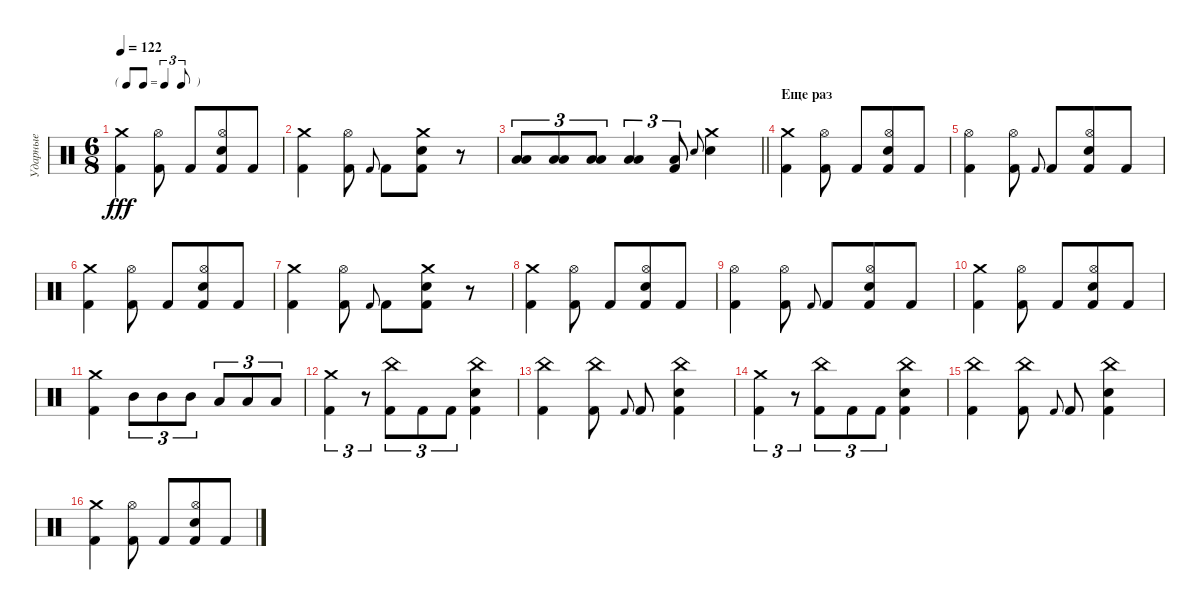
\track ("Ударные" "Ударные") {instrument percussion}
\staff {score}
\articulation defaults
\ts (6 8)
\tf triplet8th
\tempo 122
\clef neutral
\ks c
("Crash medium (hit)" "Kick (hit) 2").4{dy fff} ("Hi-Hat (open)" "Kick (hit) 2").8 "Kick (hit) 2".8 ("Hi-Hat (open)" "Snare (hit) 2" "Kick (hit) 2").8 "Kick (hit) 2".8 |
("Crash medium (hit)" "Kick (hit) 2").4 ("Hi-Hat (open)" "Kick (hit) 2").8 "Kick (hit) 2".8{gr onbeat} "Kick (hit) 2".8 ("Crash medium (hit)" "Snare (hit) 2" "Kick (hit) 2").8 r.8 |
\barLineRight lightlight
("Low Floor Tom (hit)" "Low Tom (hit)").8{tu (3 2)} ("Low Floor Tom (hit)" "Low Tom (hit)").8{tu (3 2)} ("Low Floor Tom (hit)" "Low Tom (hit)").8{tu (3 2)} ("Low Floor Tom (hit)" "Low Tom (hit)").4{tu (3 2)} ("Low Floor Tom (hit)" "Kick (hit) 2").8{tu (3 2)} "Snare (hit) 2".8{gr onbeat} ("Snare (hit) 2" "Crash medium (hit)").4 |
\section ("" "Еще раз")
("Crash medium (hit)" "Kick (hit) 2").4 ("Hi-Hat (open)" "Kick (hit) 2").8 "Kick (hit) 2".8 ("Hi-Hat (open)" "Snare (hit) 2" "Kick (hit) 2").8 "Kick (hit) 2".8 |
("Hi-Hat (open)" "Kick (hit) 2").4 ("Hi-Hat (open)" "Kick (hit) 2").8 "Kick (hit) 2".8{gr onbeat} "Kick (hit) 2".8 ("Hi-Hat (open)" "Snare (hit) 2" "Kick (hit) 2").8 "Kick (hit) 2".8 |
("Crash medium (hit)" "Kick (hit) 2").4 ("Hi-Hat (open)" "Kick (hit) 2").8 "Kick (hit) 2".8 ("Hi-Hat (open)" "Snare (hit) 2" "Kick (hit) 2").8 "Kick (hit) 2".8 |
("Crash medium (hit)" "Kick (hit) 2").4 ("Hi-Hat (open)" "Kick (hit) 2").8 "Kick (hit) 2".8{gr onbeat} "Kick (hit) 2".8 ("Crash medium (hit)" "Snare (hit) 2" "Kick (hit) 2").8 r.8 |
("Crash medium (hit)" "Kick (hit) 2").4 ("Hi-Hat (open)" "Kick (hit) 2").8 "Kick (hit) 2".8 ("Hi-Hat (open)" "Snare (hit) 2" "Kick (hit) 2").8 "Kick (hit) 2".8 |
("Hi-Hat (open)" "Kick (hit) 2").4 ("Hi-Hat (open)" "Kick (hit) 2").8 "Kick (hit) 2".8{gr onbeat} "Kick (hit) 2".8 ("Hi-Hat (open)" "Snare (hit) 2" "Kick (hit) 2").8 "Kick (hit) 2".8 |
("Crash medium (hit)" "Kick (hit) 2").4 ("Hi-Hat (open)" "Kick (hit) 2").8 "Kick (hit) 2".8 ("Hi-Hat (open)" "Snare (hit) 2" "Kick (hit) 2").8 "Kick (hit) 2".8 |
("Crash medium (hit)" "Kick (hit) 2").4 "Mid Tom (hit)".8{tu (3 2)} "Mid Tom (hit)".8{tu (3 2)} "Mid Tom (hit)".8{tu (3 2)} "Low Tom (hit)".8{tu (3 2)} "Low Tom (hit)".8{tu (3 2)} "Low Tom (hit)".8{tu (3 2)} |
("Kick (hit) 2" "Crash medium (hit)").4{tu (3 2)} r.8{tu (3 2)} ("Kick (hit) 2" "China (hit)").8{tu (3 2)} "Kick (hit) 2".8{tu (3 2)} "Kick (hit) 2".8{tu (3 2)} ("Snare (hit) 2" "Kick (hit) 2" "China (hit)").4 |
("China (hit)" "Kick (hit) 2").4 ("China (hit)" "Kick (hit) 2").8 "Kick (hit) 2".8{gr onbeat} "Kick (hit) 2".8 ("China (hit)" "Snare (hit) 2" "Kick (hit) 2").4 |
("Kick (hit) 2" "Crash medium (hit)").4{tu (3 2)} r.8{tu (3 2)} ("Kick (hit) 2" "China (hit)").8{tu (3 2)} "Kick (hit) 2".8{tu (3 2)} "Kick (hit) 2".8{tu (3 2)} ("Snare (hit) 2" "Kick (hit) 2" "China (hit)").4 |
("China (hit)" "Kick (hit) 2").4 ("China (hit)" "Kick (hit) 2").8 "Kick (hit) 2".8{gr onbeat} "Kick (hit) 2".8 ("China (hit)" "Snare (hit) 2" "Kick (hit) 2").4 |
("Crash medium (hit)" "Kick (hit) 2").4 ("Hi-Hat (open)" "Kick (hit) 2").8 "Kick (hit) 2".8 ("Hi-Hat (open)" "Snare (hit) 2" "Kick (hit) 2").8 "Kick (hit) 2".8
